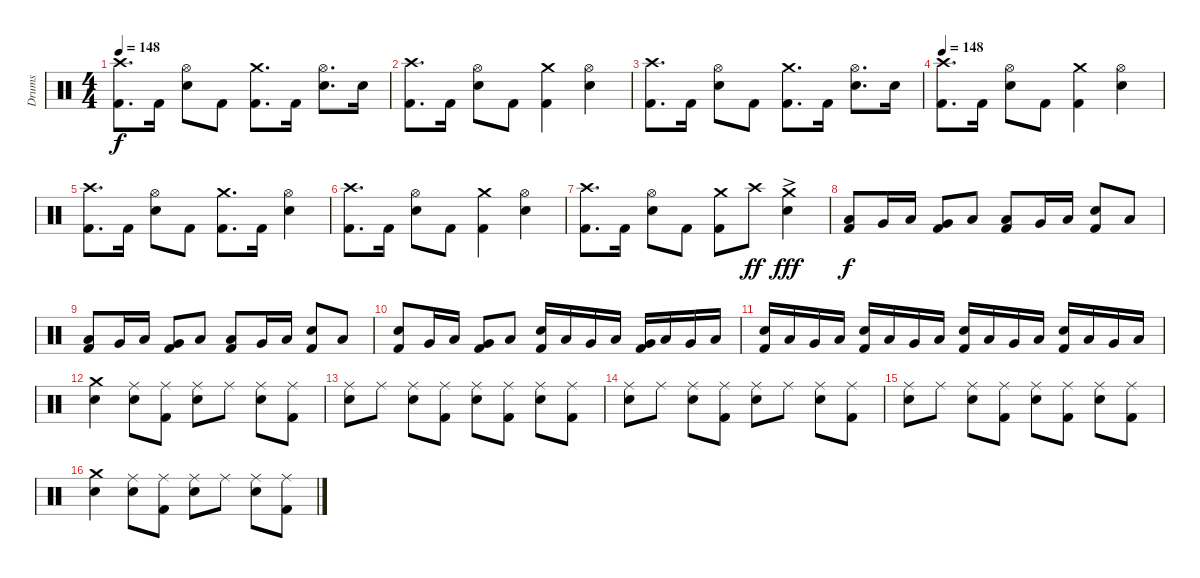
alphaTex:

\track ("Drums" "Drums") {instrument percussion}
\staff {score}
\articulation defaults
\ts (4 4)
\tempo 148
\clef neutral
\ks c
("Crash high (hit)" "Kick (hit) 2").8{d dy f} "Kick (hit) 2".16 ("Hi-Hat (open)" "Snare (hit) 2").8 "Kick (hit) 2".8 ("Crash medium (hit)" "Kick (hit) 2").8{d} "Kick (hit) 2".16 ("Hi-Hat (open)" "Snare (hit) 2").8{d} "Snare (hit) 2".16 |
("Crash high (hit)" "Kick (hit) 2").8{d} "Kick (hit) 2".16 ("Hi-Hat (open)" "Snare (hit) 2").8 "Kick (hit) 2".8 ("Crash medium (hit)" "Kick (hit) 2").4 ("Hi-Hat (open)" "Snare (hit) 2").4 |
("Crash high (hit)" "Kick (hit) 2").8{d} "Kick (hit) 2".16 ("Hi-Hat (open)" "Snare (hit) 2").8 "Kick (hit) 2".8 ("Crash medium (hit)" "Kick (hit) 2").8{d} "Kick (hit) 2".16 ("Hi-Hat (open)" "Snare (hit) 2").8{d} "Snare (hit) 2".16 |
\tempo 148
("Crash high (hit)" "Kick (hit) 2").8{d} "Kick (hit) 2".16 ("Hi-Hat (open)" "Snare (hit) 2").8 "Kick (hit) 2".8 ("Crash medium (hit)" "Kick (hit) 2").4 ("Hi-Hat (open)" "Snare (hit) 2").4 |
("Crash high (hit)" "Kick (hit) 2").8{d} "Kick (hit) 2".16 ("Hi-Hat (open)" "Snare (hit) 2").8 "Kick (hit) 2".8 ("Crash medium (hit)" "Kick (hit) 2").8{d} "Kick (hit) 2".16 ("Hi-Hat (open)" "Snare (hit) 2").4 |
("Crash high (hit)" "Kick (hit) 2").8{d} "Kick (hit) 2".16 ("Hi-Hat (open)" "Snare (hit) 2").8 "Kick (hit) 2".8 ("Crash medium (hit)" "Kick (hit) 2").4 ("Hi-Hat (open)" "Snare (hit) 2").4 |
("Crash high (hit)" "Kick (hit) 2").8{d} "Kick (hit) 2".16 ("Hi-Hat (open)" "Snare (hit) 2").8 "Kick (hit) 2".8 ("Crash medium (hit)" "Kick (hit) 2").8 "Crash high (hit)".8{dy ff} ("Crash medium (hit)"{ac} "Snare (hit) 2").4{dy fff} |
("Low Tom (hit)" "Kick (hit) 2").8{dy f} "Very Low Tom (hit)".16 "Low Tom (hit)".16 ("Very Low Tom (hit)" "Kick (hit) 2").8 "Low Tom (hit)".8 ("Low Tom (hit)" "Kick (hit) 2").8 "Very Low Tom (hit)".16 "Low Tom (hit)".16 ("Snare (hit) 2" "Kick (hit) 2").8 "Low Tom (hit)".8 |
("Low Tom (hit)" "Kick (hit) 2").8 "Very Low Tom (hit)".16 "Low Tom (hit)".16 ("Very Low Tom (hit)" "Kick (hit) 2").8 "Low Tom (hit)".8 ("Low Tom (hit)" "Kick (hit) 2").8 "Very Low Tom (hit)".16 "Low Tom (hit)".16 ("Snare (hit) 2" "Kick (hit) 2").8 "Low Tom (hit)".8 |
("Snare (hit) 2" "Kick (hit) 2").8 "Very Low Tom (hit)".16 "Low Tom (hit)".16 ("Very Low Tom (hit)" "Kick (hit) 2").8 "Low Tom (hit)".8 ("Snare (hit) 2" "Kick (hit) 2").16 "Low Tom (hit)".16 "Very Low Tom (hit)".16 "Low Tom (hit)".16 ("Very Low Tom (hit)" "Kick (hit) 2").16 "Low Tom (hit)".16 "Very Low Tom (hit)".16 "Low Tom (hit)".16 |
("Snare (hit) 2" "Kick (hit) 2").16 "Low Tom (hit)".16 "Very Low Tom (hit)".16 "Low Tom (hit)".16 ("Snare (hit) 2" "Kick (hit) 2").16 "Low Tom (hit)".16 "Very Low Tom (hit)".16 "Low Tom (hit)".16 ("Snare (hit) 2" "Kick (hit) 2").16 "Low Tom (hit)".16 "Very Low Tom (hit)".16 "Low Tom (hit)".16 ("Snare (hit) 2" "Kick (hit) 2").16 "Low Tom (hit)".16 "Very Low Tom (hit)".16 "Low Tom (hit)".16 |
("Crash medium (hit)" "Snare (hit) 2").4 ("Ride (middle)" "Snare (hit) 2").8 ("Ride (middle)" "Kick (hit) 2").8 ("Ride (middle)" "Snare (hit) 2").8 "Ride (middle)".8 ("Ride (middle)" "Snare (hit) 2").8 ("Ride (middle)" "Kick (hit) 2").8 |
("Ride (middle)" "Snare (hit) 2").8 "Ride (middle)".8 ("Ride (middle)" "Snare (hit) 2").8 ("Ride (middle)" "Kick (hit) 2").8 ("Ride (middle)" "Snare (hit) 2").8 ("Ride (middle)" "Kick (hit) 2").8 ("Ride (middle)" "Snare (hit) 2").8 ("Ride (middle)" "Kick (hit) 2").8 |
("Ride (middle)" "Snare (hit) 2").8 "Ride (middle)".8 ("Ride (middle)" "Snare (hit) 2").8 ("Ride (middle)" "Kick (hit) 2").8 ("Ride (middle)" "Snare (hit) 2").8 "Ride (middle)".8 ("Ride (middle)" "Snare (hit) 2").8 ("Ride (middle)" "Kick (hit) 2").8 |
("Ride (middle)" "Snare (hit) 2").8 "Ride (middle)".8 ("Ride (middle)" "Snare (hit) 2").8 ("Ride (middle)" "Kick (hit) 2").8 ("Ride (middle)" "Snare (hit) 2").8 ("Ride (middle)" "Kick (hit) 2").8 ("Ride (middle)" "Snare (hit) 2").8 ("Ride (middle)" "Kick (hit) 2").8 |
("Crash medium (hit)" "Snare (hit) 2").4 ("Ride (middle)" "Snare (hit) 2").8 ("Ride (middle)" "Kick (hit) 2").8 ("Ride (middle)" "Snare (hit) 2").8 "Ride (middle)".8 ("Ride (middle)" "Snare (hit) 2").8 ("Ride (middle)" "Kick (hit) 2").8
